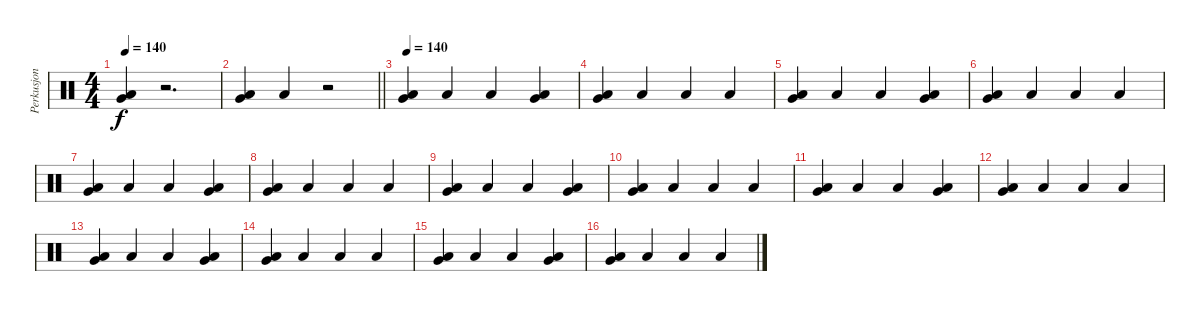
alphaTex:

\track ("Perkusjon" "Perkusjon") {instrument percussion}
\staff {score}
\articulation defaults
\ts (4 4)
\tempo 140
\clef neutral
\ks c
("Very Low Tom (hit)" "Low Floor Tom (hit)").4{dy f} r.2{d} |
\barLineRight lightlight
("Very Low Tom (hit)" "Low Floor Tom (hit)").4 "Low Floor Tom (hit)".4 r.2 |
\section ("" "")
\tempo 140
("Very Low Tom (hit)" "Low Floor Tom (hit)").4 "Low Floor Tom (hit)".4 "Low Floor Tom (hit)".4 ("Very Low Tom (hit)" "Low Floor Tom (hit)").4 |
("Very Low Tom (hit)" "Low Floor Tom (hit)").4 "Low Floor Tom (hit)".4 "Low Floor Tom (hit)".4 "Low Floor Tom (hit)".4 |
("Very Low Tom (hit)" "Low Floor Tom (hit)").4 "Low Floor Tom (hit)".4 "Low Floor Tom (hit)".4 ("Very Low Tom (hit)" "Low Floor Tom (hit)").4 |
("Very Low Tom (hit)" "Low Floor Tom (hit)").4 "Low Floor Tom (hit)".4 "Low Floor Tom (hit)".4 "Low Floor Tom (hit)".4 |
("Very Low Tom (hit)" "Low Floor Tom (hit)").4 "Low Floor Tom (hit)".4 "Low Floor Tom (hit)".4 ("Very Low Tom (hit)" "Low Floor Tom (hit)").4 |
("Very Low Tom (hit)" "Low Floor Tom (hit)").4 "Low Floor Tom (hit)".4 "Low Floor Tom (hit)".4 "Low Floor Tom (hit)".4 |
("Very Low Tom (hit)" "Low Floor Tom (hit)").4 "Low Floor Tom (hit)".4 "Low Floor Tom (hit)".4 ("Very Low Tom (hit)" "Low Floor Tom (hit)").4 |
("Very Low Tom (hit)" "Low Floor Tom (hit)").4 "Low Floor Tom (hit)".4 "Low Floor Tom (hit)".4 "Low Floor Tom (hit)".4 |
("Very Low Tom (hit)" "Low Floor Tom (hit)").4 "Low Floor Tom (hit)".4 "Low Floor Tom (hit)".4 ("Very Low Tom (hit)" "Low Floor Tom (hit)").4 |
("Very Low Tom (hit)" "Low Floor Tom (hit)").4 "Low Floor Tom (hit)".4 "Low Floor Tom (hit)".4 "Low Floor Tom (hit)".4 |
("Very Low Tom (hit)" "Low Floor Tom (hit)").4 "Low Floor Tom (hit)".4 "Low Floor Tom (hit)".4 ("Very Low Tom (hit)" "Low Floor Tom (hit)").4 |
("Very Low Tom (hit)" "Low Floor Tom (hit)").4 "Low Floor Tom (hit)".4 "Low Floor Tom (hit)".4 "Low Floor Tom (hit)".4 |
("Very Low Tom (hit)" "Low Floor Tom (hit)").4 "Low Floor Tom (hit)".4 "Low Floor Tom (hit)".4 ("Very Low Tom (hit)" "Low Floor Tom (hit)").4 |
("Very Low Tom (hit)" "Low Floor Tom (hit)").4 "Low Floor Tom (hit)".4 "Low Floor Tom (hit)".4 "Low Floor Tom (hit)".4
